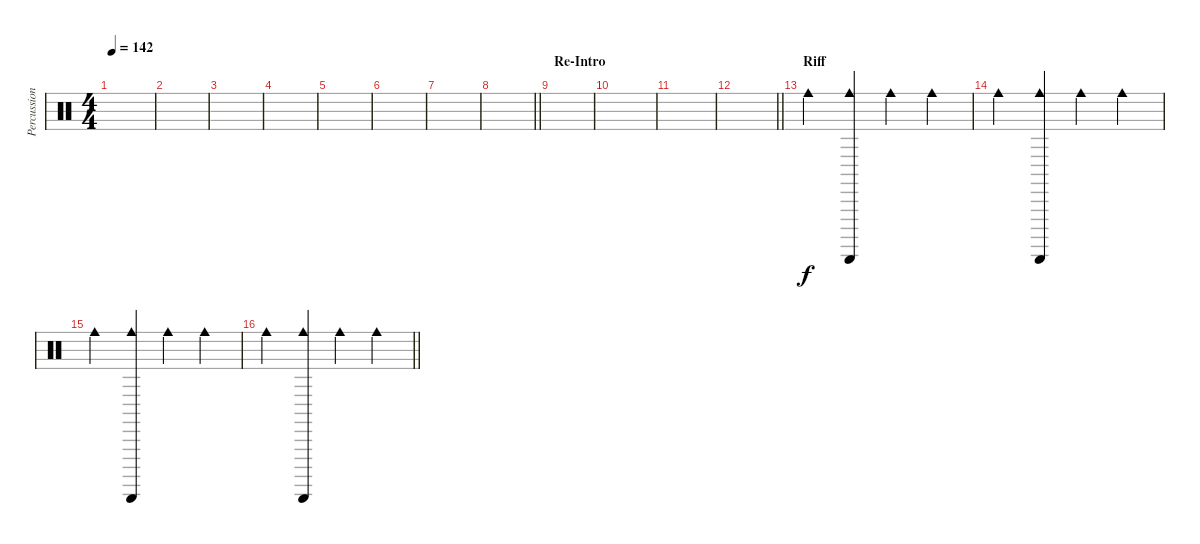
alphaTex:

\track ("Percussion" "Percussion") {instrument percussion}
\staff {score}
\articulation defaults
\ts (4 4)
\tempo 142
\clef neutral
\ks c
|
|
|
|
|
|
|
\barLineRight lightlight
|
\section ("" "Re-Intro")
|
|
|
\barLineRight lightlight
|
\section ("" "Riff")
"Cowbell medium (hit)".4 ("Guiro (scrap-return)" "Cowbell medium (hit)").4 "Cowbell medium (hit)".4 "Cowbell medium (hit)".4 |
"Cowbell medium (hit)".4 ("Guiro (scrap-return)" "Cowbell medium (hit)").4 "Cowbell medium (hit)".4 "Cowbell medium (hit)".4 |
"Cowbell medium (hit)".4 ("Guiro (scrap-return)" "Cowbell medium (hit)").4 "Cowbell medium (hit)".4 "Cowbell medium (hit)".4 |
\barLineRight lightlight "Cowbell medium (hit)".4
("Guiro (scrap-return)" "Cowbell medium (hit)").4 "Cowbell medium (hit)".4 "Cowbell medium (hit)".4
